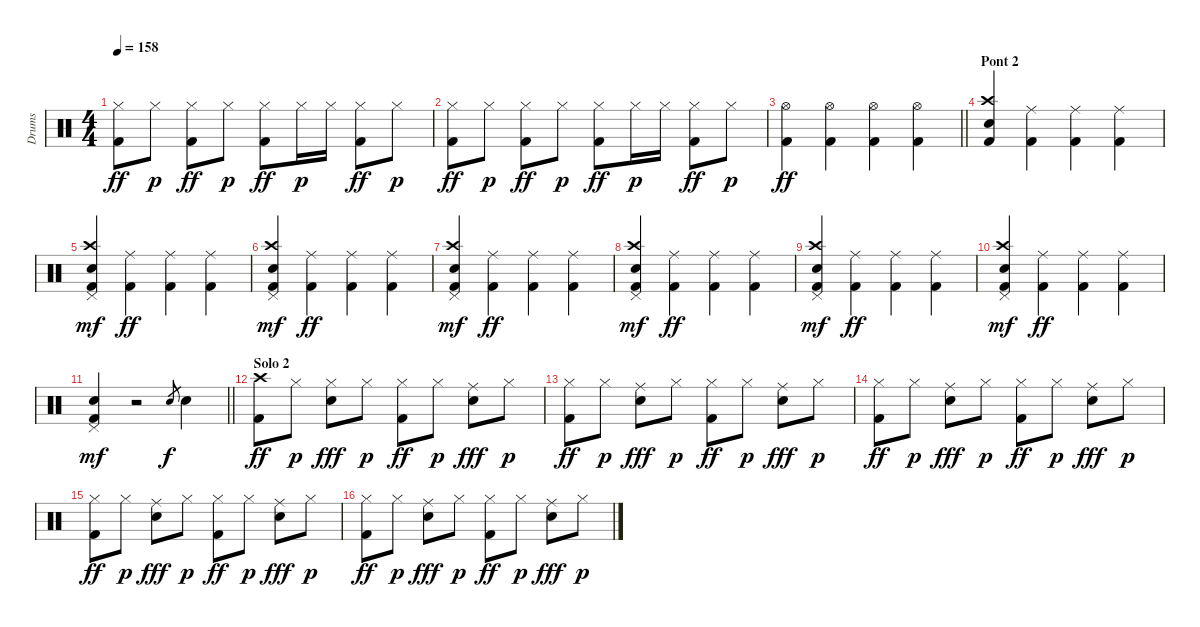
\track ("Drums" "Drums") {instrument percussion}
\staff {score}
\articulation defaults
\ts (4 4)
\tempo 158
\clef neutral
\ks c
("Hi-Hat (closed)" "Kick (hit) 2").8{dy ff} "Hi-Hat (closed)".8{dy p} ("Hi-Hat (closed)" "Kick (hit) 2").8{dy ff} "Hi-Hat (closed)".8{dy p} ("Hi-Hat (closed)" "Kick (hit) 2").8{dy ff} "Hi-Hat (closed)".16{dy p} "Hi-Hat (closed)".16 ("Hi-Hat (closed)" "Kick (hit) 2").8{dy ff} "Hi-Hat (closed)".8{dy p} |
("Hi-Hat (closed)" "Kick (hit) 2").8{dy ff} "Hi-Hat (closed)".8{dy p} ("Hi-Hat (closed)" "Kick (hit) 2").8{dy ff} "Hi-Hat (closed)".8{dy p} ("Hi-Hat (closed)" "Kick (hit) 2").8{dy ff} "Hi-Hat (closed)".16{dy p} "Hi-Hat (closed)".16 ("Hi-Hat (closed)" "Kick (hit) 2").8{dy ff} "Hi-Hat (closed)".8{dy p} |
\barLineRight lightlight
("Hi-Hat (open)" "Kick (hit) 2").4{dy ff} ("Hi-Hat (open)" "Kick (hit) 2").4 ("Hi-Hat (open)" "Kick (hit) 2").4 ("Hi-Hat (open)" "Kick (hit) 2").4 |
\section ("" "Pont 2")
("Crash high (hit)" "Kick (hit) 2" "Snare (hit) 2").4 ("Ride (middle)" "Kick (hit) 2").4 ("Ride (middle)" "Kick (hit) 2").4 ("Ride (middle)" "Kick (hit) 2").4 |
("Crash high (hit)" "Snare (hit) 2" "Kick (hit) 2" "Pedal Hi-Hat (hit)").4{dy mf} ("Ride (middle)" "Kick (hit) 2").4{dy ff} ("Ride (middle)" "Kick (hit) 2").4 ("Ride (middle)" "Kick (hit) 2").4 |
("Crash high (hit)" "Snare (hit) 2" "Kick (hit) 2" "Pedal Hi-Hat (hit)").4{dy mf} ("Ride (middle)" "Kick (hit) 2").4{dy ff} ("Ride (middle)" "Kick (hit) 2").4 ("Ride (middle)" "Kick (hit) 2").4 |
("Crash high (hit)" "Snare (hit) 2" "Kick (hit) 2" "Pedal Hi-Hat (hit)").4{dy mf} ("Ride (middle)" "Kick (hit) 2").4{dy ff} ("Ride (middle)" "Kick (hit) 2").4 ("Ride (middle)" "Kick (hit) 2").4 |
("Crash high (hit)" "Snare (hit) 2" "Kick (hit) 2" "Pedal Hi-Hat (hit)").4{dy mf} ("Ride (middle)" "Kick (hit) 2").4{dy ff} ("Ride (middle)" "Kick (hit) 2").4 ("Ride (middle)" "Kick (hit) 2").4 |
("Crash high (hit)" "Snare (hit) 2" "Kick (hit) 2" "Pedal Hi-Hat (hit)").4{dy mf} ("Ride (middle)" "Kick (hit) 2").4{dy ff} ("Ride (middle)" "Kick (hit) 2").4 ("Ride (middle)" "Kick (hit) 2").4 |
("Crash high (hit)" "Snare (hit) 2" "Kick (hit) 2" "Pedal Hi-Hat (hit)").4{dy mf} ("Ride (middle)" "Kick (hit) 2").4{dy ff} ("Ride (middle)" "Kick (hit) 2").4 ("Ride (middle)" "Kick (hit) 2").4 |
\barLineRight lightlight
("Snare (hit) 2" "Kick (hit) 2" "Pedal Hi-Hat (hit)").4{dy mf} r.2 "Snare (hit) 2".8{gr dy f} "Snare (hit) 2".4 |
\section ("" "Solo 2")
("Crash high (hit)" "Kick (hit) 2").8{dy ff} "Hi-Hat (closed)".8{dy p} ("Hi-Hat (closed)" "Snare (hit) 2").8{dy fff} "Hi-Hat (closed)".8{dy p} ("Hi-Hat (closed)" "Kick (hit) 2").8{dy ff} "Hi-Hat (closed)".8{dy p} ("Ride (middle)" "Snare (hit) 2").8{dy fff} "Hi-Hat (closed)".8{dy p} |
("Hi-Hat (closed)" "Kick (hit) 2").8{dy ff} "Hi-Hat (closed)".8{dy p} ("Ride (middle)" "Snare (hit) 2").8{dy fff} "Hi-Hat (closed)".8{dy p} ("Hi-Hat (closed)" "Kick (hit) 2").8{dy ff} "Hi-Hat (closed)".8{dy p} ("Ride (middle)" "Snare (hit) 2").8{dy fff} "Hi-Hat (closed)".8{dy p} |
("Hi-Hat (closed)" "Kick (hit) 2").8{dy ff} "Hi-Hat (closed)".8{dy p} ("Ride (middle)" "Snare (hit) 2").8{dy fff} "Hi-Hat (closed)".8{dy p} ("Hi-Hat (closed)" "Kick (hit) 2").8{dy ff} "Hi-Hat (closed)".8{dy p} ("Ride (middle)" "Snare (hit) 2").8{dy fff} "Hi-Hat (closed)".8{dy p} |
("Hi-Hat (closed)" "Kick (hit) 2").8{dy ff} "Hi-Hat (closed)".8{dy p} ("Ride (middle)" "Snare (hit) 2").8{dy fff} "Hi-Hat (closed)".8{dy p} ("Hi-Hat (closed)" "Kick (hit) 2").8{dy ff} "Hi-Hat (closed)".8{dy p} ("Ride (middle)" "Snare (hit) 2").8{dy fff} "Hi-Hat (closed)".8{dy p} |
("Hi-Hat (closed)" "Kick (hit) 2").8{dy ff} "Hi-Hat (closed)".8{dy p} ("Ride (middle)" "Snare (hit) 2").8{dy fff} "Hi-Hat (closed)".8{dy p} ("Hi-Hat (closed)" "Kick (hit) 2").8{dy ff} "Hi-Hat (closed)".8{dy p} ("Ride (middle)" "Snare (hit) 2").8{dy fff} "Hi-Hat (closed)".8{dy p}
